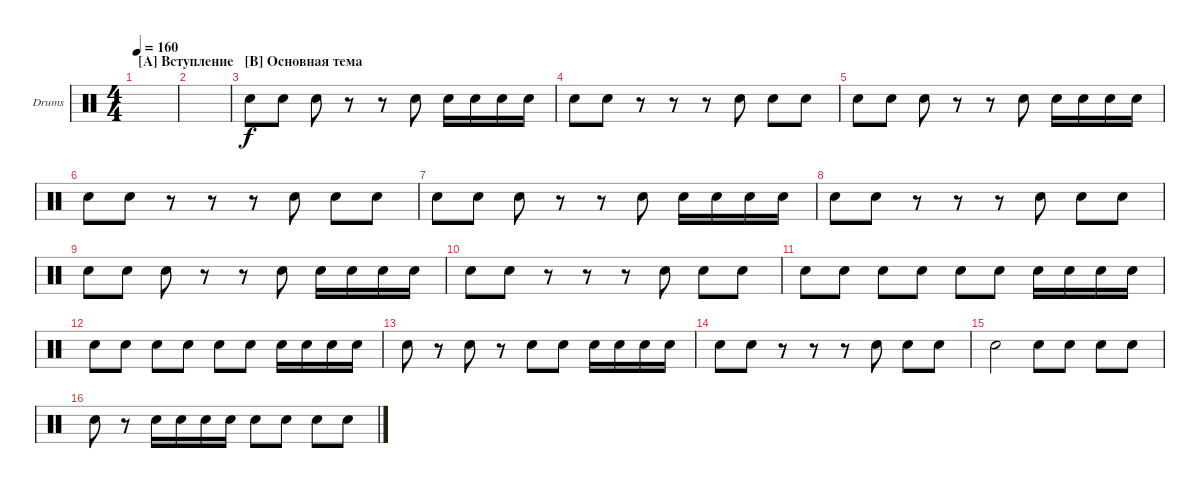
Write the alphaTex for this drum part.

\defaultSystemsLayout 4
\bracketExtendMode groupsimilarinstruments
\firstSystemTrackNameOrientation horizontal
\otherSystemsTrackNameOrientation horizontal
\track ("Drumkit" "Drums") {instrument percussion}
\staff {score}
\articulation defaults
\ts (4 4)
\section ("A" "Вступление")
\tempo 160
\clef neutral
\ks c
|
|
\section ("B" "Основная тема")
\scale
0.474178 "Snare (hit) 2".8 "Snare (hit) 2".8 "Snare (hit) 2".8 r.8 r.8 "Snare (hit) 2".8 "Snare (hit) 2".16 "Snare (hit) 2".16 "Snare (hit) 2".16 "Snare (hit) 2".16 |
\scale
0.262911 "Snare (hit) 2".8 "Snare (hit) 2".8 r.8 r.8 r.8 "Snare (hit) 2".8 "Snare (hit) 2".8 "Snare (hit) 2".8 |
\scale
0.262911 "Snare (hit) 2".8 "Snare (hit) 2".8 "Snare (hit) 2".8 r.8 r.8 "Snare (hit) 2".8 "Snare (hit) 2".16 "Snare (hit) 2".16 "Snare (hit) 2".16 "Snare (hit) 2".16 |
\scale
0.333333 "Snare (hit) 2".8 "Snare (hit) 2".8 r.8 r.8 r.8 "Snare (hit) 2".8 "Snare (hit) 2".8 "Snare (hit) 2".8 |
\scale
0.333333 "Snare (hit) 2".8 "Snare (hit) 2".8 "Snare (hit) 2".8 r.8 r.8 "Snare (hit) 2".8 "Snare (hit) 2".16 "Snare (hit) 2".16 "Snare (hit) 2".16 "Snare (hit) 2".16 |
\scale
0.333333 "Snare (hit) 2".8 "Snare (hit) 2".8 r.8 r.8 r.8 "Snare (hit) 2".8 "Snare (hit) 2".8 "Snare (hit) 2".8 |
\scale
0.333333 "Snare (hit) 2".8 "Snare (hit) 2".8 "Snare (hit) 2".8 r.8 r.8 "Snare (hit) 2".8 "Snare (hit) 2".16 "Snare (hit) 2".16 "Snare (hit) 2".16 "Snare (hit) 2".16 |
\scale
0.333333 "Snare (hit) 2".8 "Snare (hit) 2".8 r.8 r.8 r.8 "Snare (hit) 2".8 "Snare (hit) 2".8 "Snare (hit) 2".8 |
\scale
0.333333 "Snare (hit) 2".8 "Snare (hit) 2".8 "Snare (hit) 2".8 "Snare (hit) 2".8 "Snare (hit) 2".8 "Snare (hit) 2".8 "Snare (hit) 2".16 "Snare (hit) 2".16 "Snare (hit) 2".16 "Snare (hit) 2".16 |
\scale
0.333333 "Snare (hit) 2".8 "Snare (hit) 2".8 "Snare (hit) 2".8 "Snare (hit) 2".8 "Snare (hit) 2".8 "Snare (hit) 2".8 "Snare (hit) 2".16 "Snare (hit) 2".16 "Snare (hit) 2".16 "Snare (hit) 2".16 |
\scale
0.333333 "Snare (hit) 2".8 r.8 "Snare (hit) 2".8 r.8 "Snare (hit) 2".8 "Snare (hit) 2".8 "Snare (hit) 2".16 "Snare (hit) 2".16 "Snare (hit) 2".16 "Snare (hit) 2".16 |
\scale
0.333333 "Snare (hit) 2".8 "Snare (hit) 2".8 r.8 r.8 r.8 "Snare (hit) 2".8 "Snare (hit) 2".8 "Snare (hit) 2".8 |
\scale
0.333333 "Snare (hit) 2".2 "Snare (hit) 2".8 "Snare (hit) 2".8 "Snare (hit) 2".8 "Snare (hit) 2".8 |
\scale
0.333333 "Snare (hit) 2".8 r.8 "Snare (hit) 2".16 "Snare (hit) 2".16 "Snare (hit) 2".16 "Snare (hit) 2".16 "Snare (hit) 2".8 "Snare (hit) 2".8 "Snare (hit) 2".8 "Snare (hit) 2".8
